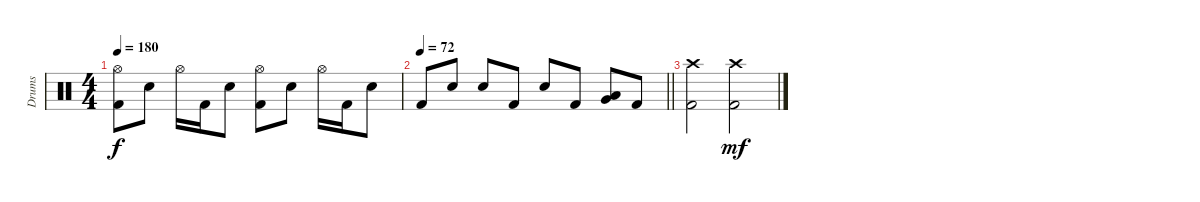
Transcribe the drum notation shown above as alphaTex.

\track ("Drums" "Drums") {instrument percussion}
\staff {score}
\articulation defaults
\ts (4 4)
\tempo 180
\clef neutral
\ks c
("Hi-Hat (open)" "Kick (hit) 2").8{dy f} "Snare (hit) 2".8 "Hi-Hat (open)".16 "Kick (hit) 2".16 "Snare (hit) 2".8 ("Hi-Hat (open)" "Kick (hit) 2").8 "Snare (hit) 2".8 "Hi-Hat (open)".16 "Kick (hit) 2".16 "Snare (hit) 2".8 |
\tempo 72
\barLineRight lightlight "Kick (hit) 2".8 "Snare (hit) 2".8 "Snare (hit) 2".8 "Kick (hit) 2".8 "Snare (hit) 2".8 "Kick (hit) 2".8
("Low Tom (hit)" "Very Low Tom (hit)").8 "Kick (hit) 2".8 |
("Crash high (hit)" "Kick (hit) 2").2 ("Crash high (hit)" "Kick (hit) 2").2{dy mf}
